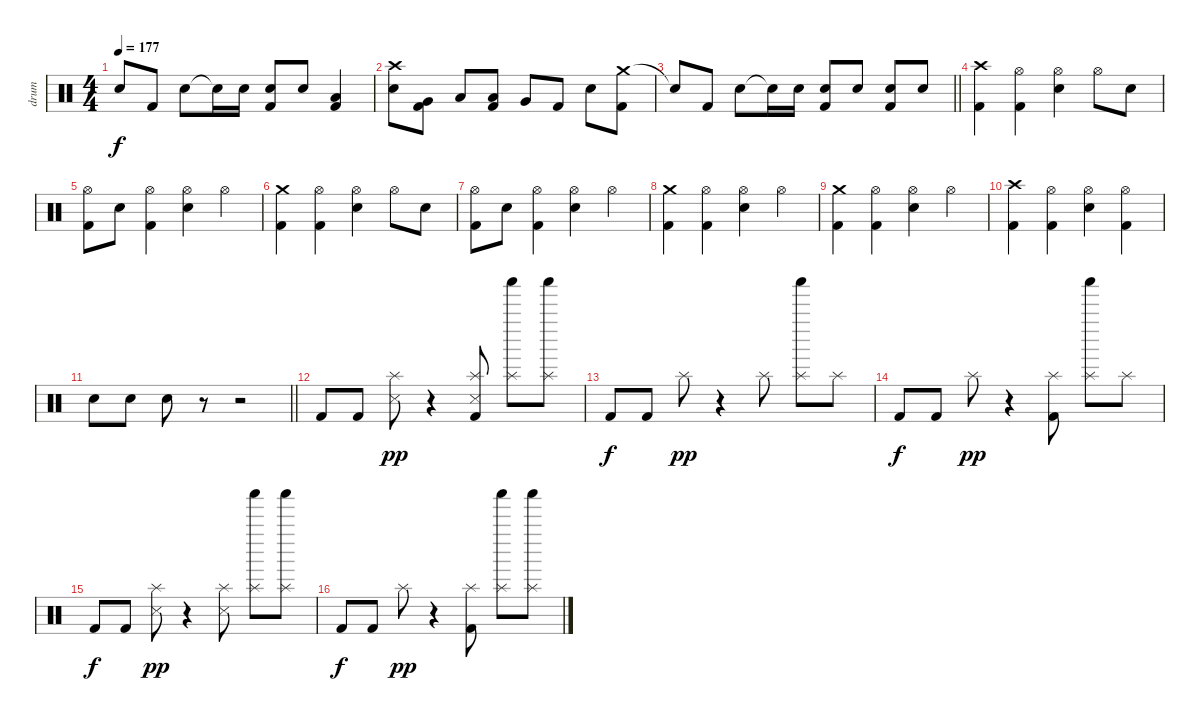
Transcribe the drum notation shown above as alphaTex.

\track ("drum" "drum") {instrument percussion}
\staff {score}
\articulation defaults
\ts (4 4)
\tempo 177
\clef neutral
\ks c "Snare (hit)"{t}.8{dy f} "Kick (hit) 2".8 "Electric Snare (hit)".8 "Snare (hit)"{t}.16 "Electric Snare (hit)".16
("Electric Snare (hit)" "Kick (hit) 2").8 "Electric Snare (hit)".8 ("Low Tom (hit)" "Kick (hit) 2").4 |
("Crash high (hit)" "Electric Snare (hit)").8 ("Very Low Tom (hit)" "Kick (hit) 2").8 "Low Tom (hit)".8 ("Low Tom (hit)" "Kick (hit) 2").8 "Very Low Tom (hit)".8 "Kick (hit) 2".8 "Electric Snare (hit)".8 ("Crash medium (hit)" "Kick (hit) 2").8 |
\barLineRight lightlight "Snare (hit)"{t}.8 "Kick (hit) 2".8 "Electric Snare (hit)".8 "Snare (hit)"{t}.16 "Electric Snare (hit)".16
("Electric Snare (hit)" "Kick (hit) 2").8 "Electric Snare (hit)".8 ("Electric Snare (hit)" "Kick (hit) 2").8 "Electric Snare (hit)".8 |
\section ("" "")
("Crash high (hit)" "Kick (hit) 2").4 ("Hi-Hat (open)" "Kick (hit) 2").4 ("Hi-Hat (open)" "Electric Snare (hit)").4 "Hi-Hat (open)".8 "Electric Snare (hit)".8 |
("Hi-Hat (open)" "Kick (hit) 2").8 "Electric Snare (hit)".8 ("Hi-Hat (open)" "Kick (hit) 2").4 ("Hi-Hat (open)" "Electric Snare (hit)").4 "Hi-Hat (open)".4 |
("Crash medium (hit)" "Kick (hit) 2").4 ("Hi-Hat (open)" "Kick (hit) 2").4 ("Hi-Hat (open)" "Electric Snare (hit)").4 "Hi-Hat (open)".8 "Electric Snare (hit)".8 |
("Hi-Hat (open)" "Kick (hit) 2").8 "Electric Snare (hit)".8 ("Hi-Hat (open)" "Kick (hit) 2").4 ("Hi-Hat (open)" "Electric Snare (hit)").4 "Hi-Hat (open)".4 |
("Crash medium (hit)" "Kick (hit) 2").4 ("Hi-Hat (open)" "Kick (hit) 2").4 ("Hi-Hat (open)" "Electric Snare (hit)").4 "Hi-Hat (open)".4 |
("Crash medium (hit)" "Kick (hit) 2").4 ("Hi-Hat (open)" "Kick (hit) 2").4 ("Hi-Hat (open)" "Electric Snare (hit)").4 "Hi-Hat (open)".4 |
("Crash high (hit)" "Kick (hit) 2").4 ("Hi-Hat (open)" "Kick (hit) 2").4 ("Hi-Hat (open)" "Electric Snare (hit)").4 ("Hi-Hat (open)" "Kick (hit) 2").4 |
\barLineRight lightlight "Electric Snare (hit)".8 "Electric Snare (hit)".8 "Electric Snare (hit)".8
r.8 r.2 |
\section ("" "")
"Kick (hit) 2".8 "Kick (hit) 2".8 ("Splash (hit)" "Snare (side stick) 3").8{dy pp} r.4 ("Splash (hit)" "Snare (side stick) 3" "Kick (hit) 2").8 ("Splash (hit)" "Shaker (hit)").8 ("Splash (hit)" "Shaker (hit)").8 |
"Kick (hit) 2".8{dy f} "Kick (hit) 2".8 "Splash (hit)".8{dy pp} r.4 "Splash (hit)".8 ("Splash (hit)" "Shaker (hit)").8 "Splash (hit)".8 |
"Kick (hit) 2".8{dy f} "Kick (hit) 2".8 "Splash (hit)".8{dy pp} r.4 ("Splash (hit)" "Kick (hit) 2").8 ("Splash (hit)" "Shaker (hit)").8 "Splash (hit)".8 |
"Kick (hit) 2".8{dy f} "Kick (hit) 2".8 ("Splash (hit)" "Snare (side stick) 3").8{dy pp} r.4 ("Splash (hit)" "Snare (side stick) 3").8 ("Splash (hit)" "Shaker (hit)").8 ("Splash (hit)" "Shaker (hit)").8 |
"Kick (hit) 2".8{dy f} "Kick (hit) 2".8 "Splash (hit)".8{dy pp} r.4 ("Splash (hit)" "Kick (hit) 2").8 ("Splash (hit)" "Shaker (hit)").8 ("Splash (hit)" "Shaker (hit)").8
